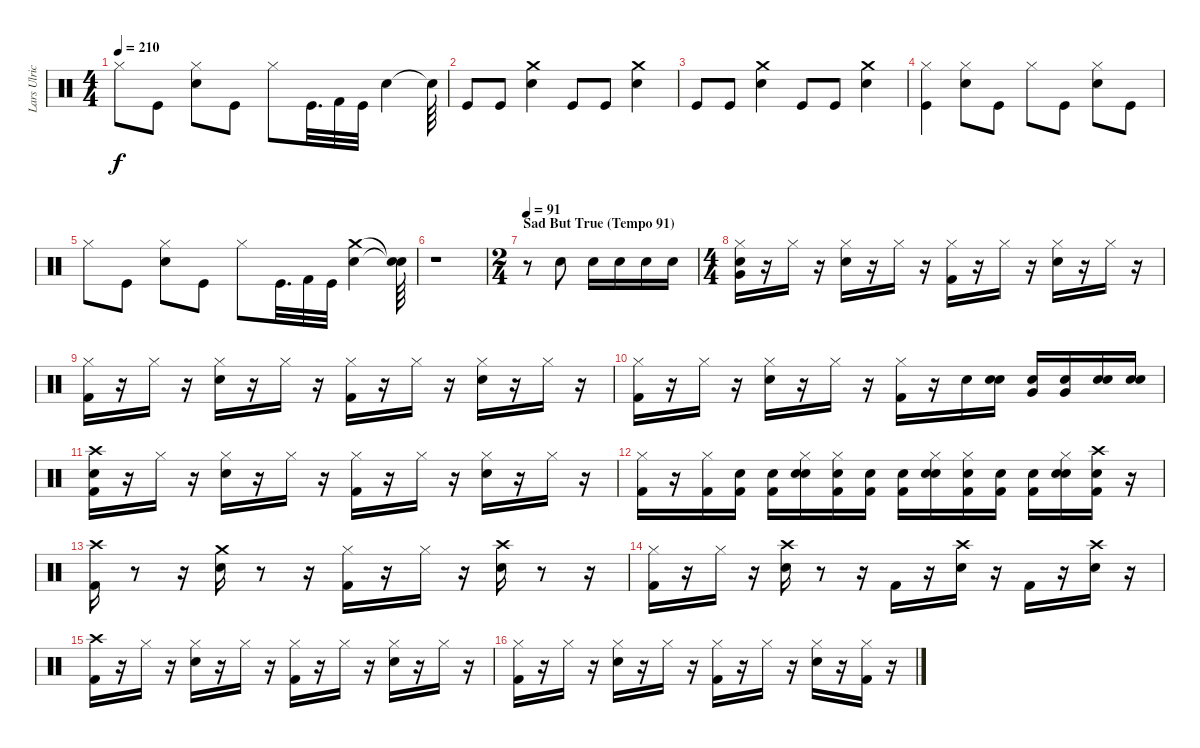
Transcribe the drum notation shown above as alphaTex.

\track ("Lars Ulrich (Drums)" "Lars Ulric") {instrument percussion}
\staff {score}
\articulation defaults
\ts (4 4)
\tempo 210
\clef neutral
\ks c "Hi-Hat (closed)".8{dy f} "Kick (hit)".8
("Snare (hit) 2" "Hi-Hat (closed)").8 "Kick (hit)".8 "Hi-Hat (closed)".8 "Kick (hit)".32{d} "Kick (hit) 2".32 "Kick (hit)".32 "Snare (hit) 2".4 "Snare (hit)"{t}.64 |
"Kick (hit)".8 "Kick (hit)".8 ("Crash medium (hit)" "Snare (hit) 2").4 "Kick (hit)".8 "Kick (hit)".8 ("Snare (hit) 2" "Crash medium (hit)").4 |
"Kick (hit)".8 "Kick (hit)".8 ("Snare (hit) 2" "Crash medium (hit)").4 "Kick (hit)".8 "Kick (hit)".8 ("Snare (hit) 2" "Crash medium (hit)").4 |
("Hi-Hat (closed)" "Kick (hit)").4 ("Snare (hit) 2" "Hi-Hat (closed)").8 "Kick (hit)".8 "Hi-Hat (closed)".8 "Kick (hit)".8 ("Snare (hit) 2" "Hi-Hat (closed)").8 "Kick (hit)".8 |
"Hi-Hat (closed)".8 "Kick (hit)".8 ("Snare (hit) 2" "Hi-Hat (closed)").8 "Kick (hit)".8 "Hi-Hat (closed)".8 "Kick (hit)".32{d} "Kick (hit) 2".32 "Kick (hit)".32 ("Crash medium (hit)" "Snare (hit) 2").4 ("Snare (hit)"{t} "Snare (hit)"{t}).64 |
r.1 |
\ts (2 4)
\section ("" "Sad But True (Tempo 91)")
\tempo 91
r.8 "Snare (hit) 2".8 "Snare (hit) 2".16 "Snare (hit) 2".16 "Snare (hit) 2".16 "Snare (hit) 2".16 |
\ts (4 4)
("Snare (hit)" "Hi-Hat (closed)" "Very Low Tom (hit)").16 r.16 "Hi-Hat (closed)".16 r.16 ("Snare (hit) 2" "Hi-Hat (closed)").16 r.16 "Hi-Hat (closed)".16 r.16 ("Kick (hit) 2" "Hi-Hat (closed)").16 r.16 "Hi-Hat (closed)".16 r.16 ("Snare (hit) 2" "Hi-Hat (closed)").16 r.16 "Hi-Hat (closed)".16 r.16 |
("Kick (hit) 2" "Hi-Hat (closed)").16 r.16 "Hi-Hat (closed)".16 r.16 ("Snare (hit) 2" "Hi-Hat (closed)").16 r.16 "Hi-Hat (closed)".16 r.16 ("Kick (hit) 2" "Hi-Hat (closed)").16 r.16 "Hi-Hat (closed)".16 r.16 ("Snare (hit) 2" "Hi-Hat (closed)").16 r.16 "Hi-Hat (closed)".16 r.16 |
("Kick (hit) 2" "Hi-Hat (closed)").16 r.16 "Hi-Hat (closed)".16 r.16 ("Snare (hit) 2" "Hi-Hat (closed)").16 r.16 "Hi-Hat (closed)".16 r.16 ("Kick (hit) 2" "Hi-Hat (closed)").16 r.16 "Snare (hit) 2".16 ("Snare (hit)" "Snare (hit) 2").16 ("Snare (hit)" "Very Low Tom (hit)").16 ("Snare (hit)" "Very Low Tom (hit)").16 ("Snare (hit)" "Snare (hit) 2").16 ("Snare (hit)" "Snare (hit) 2").16 |
("Snare (hit)" "Kick (hit) 2" "Crash high (hit)").16 r.16 "Hi-Hat (closed)".16 r.16 ("Snare (hit) 2" "Hi-Hat (closed)").16 r.16 "Hi-Hat (closed)".16 r.16 ("Kick (hit) 2" "Hi-Hat (closed)").16 r.16 "Hi-Hat (closed)".16 r.16 ("Snare (hit) 2" "Hi-Hat (closed)").16 r.16 "Hi-Hat (closed)".16 r.16 |
("Kick (hit) 2" "Hi-Hat (closed)").16 r.16 ("Kick (hit) 2" "Hi-Hat (closed)").16 ("Snare (hit)" "Kick (hit) 2").16 ("Snare (hit)" "Kick (hit) 2").16 ("Snare (hit)" "Snare (hit) 2" "Hi-Hat (closed)").16 ("Snare (hit)" "Kick (hit) 2" "Hi-Hat (closed)").16 ("Snare (hit)" "Kick (hit) 2").16 ("Snare (hit)" "Kick (hit) 2").16 ("Snare (hit)" "Snare (hit) 2" "Hi-Hat (closed)").16 ("Snare (hit)" "Kick (hit) 2" "Hi-Hat (closed)").16 ("Snare (hit)" "Kick (hit) 2").16 ("Snare (hit)" "Kick (hit) 2").16 ("Snare (hit)" "Snare (hit) 2" "Hi-Hat (closed)").16 ("Snare (hit)" "Kick (hit) 2" "Crash high (hit)").16 r.16 |
("Kick (hit) 2" "Crash high (hit)").16 r.8 r.16 ("Snare (hit) 2" "Crash medium (hit)").16 r.8 r.16 ("Kick (hit) 2" "Hi-Hat (closed)").16 r.16 "Hi-Hat (closed)".16 r.16 ("Snare (hit) 2" "Crash high (hit)").16 r.8 r.16 |
("Kick (hit) 2" "Hi-Hat (closed)").16 r.16 "Hi-Hat (closed)".16 r.16 ("Snare (hit) 2" "Crash high (hit)").16 r.8 r.16 "Kick (hit) 2".16 r.16 ("Snare (hit) 2" "Crash high (hit)").16 r.16 "Kick (hit) 2".16 r.16 ("Snare (hit) 2" "Crash high (hit)").16 r.16 |
("Kick (hit) 2" "Crash high (hit)").16 r.16 "Hi-Hat (closed)".16 r.16 ("Snare (hit) 2" "Hi-Hat (closed)").16 r.16 "Hi-Hat (closed)".16 r.16 ("Kick (hit) 2" "Hi-Hat (closed)").16 r.16 "Hi-Hat (closed)".16 r.16 ("Snare (hit) 2" "Hi-Hat (closed)").16 r.16 "Hi-Hat (closed)".16 r.16 |
("Kick (hit) 2" "Hi-Hat (closed)").16 r.16 "Hi-Hat (closed)".16 r.16 ("Snare (hit) 2" "Hi-Hat (closed)").16 r.16 "Hi-Hat (closed)".16 r.16 ("Kick (hit) 2" "Hi-Hat (closed)").16 r.16 "Hi-Hat (closed)".16 r.16 ("Snare (hit) 2" "Hi-Hat (closed)").16 r.16 ("Kick (hit) 2" "Hi-Hat (closed)").16 r.16
